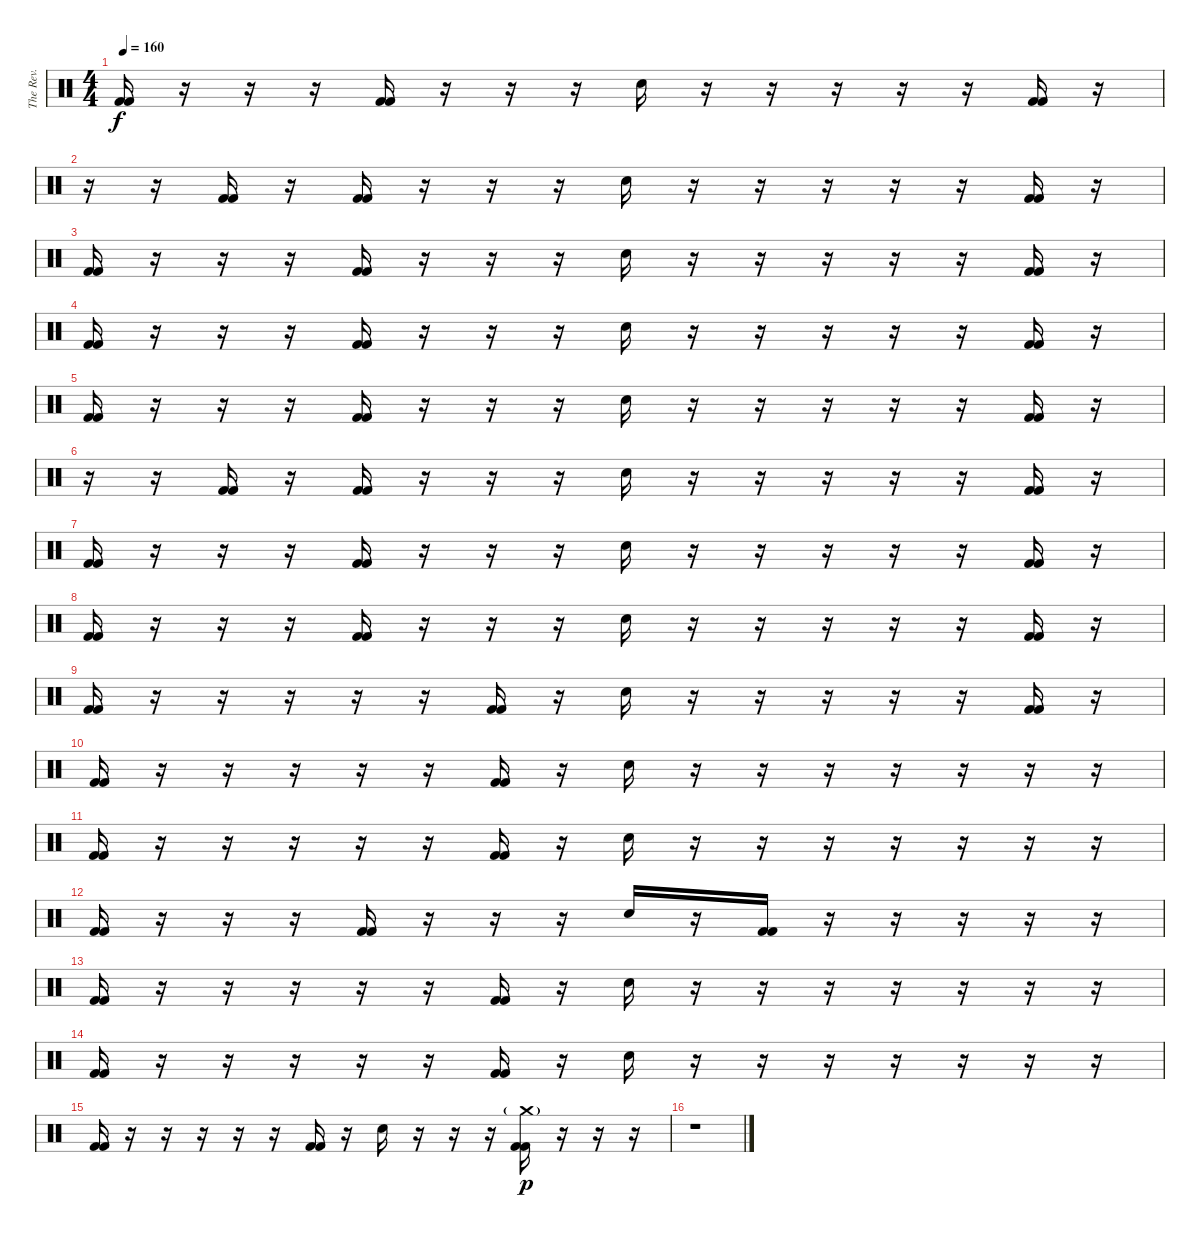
\track ("The Rev." "The Rev.") {instrument percussion}
\staff {score}
\articulation defaults
\ts (4 4)
\tempo 160
\clef neutral
\ks c
("Kick (hit) 2" "Kick (hit) 2").16{dy f} r.16 r.16 r.16 ("Kick (hit) 2" "Kick (hit) 2").16 r.16 r.16 r.16 "Electric Snare (hit)".16 r.16 r.16 r.16 r.16 r.16 ("Kick (hit) 2" "Kick (hit) 2").16 r.16 |
r.16 r.16 ("Kick (hit) 2" "Kick (hit) 2").16 r.16 ("Kick (hit) 2" "Kick (hit) 2").16 r.16 r.16 r.16 "Electric Snare (hit)".16 r.16 r.16 r.16 r.16 r.16 ("Kick (hit) 2" "Kick (hit) 2").16 r.16 |
("Kick (hit) 2" "Kick (hit) 2").16 r.16 r.16 r.16 ("Kick (hit) 2" "Kick (hit) 2").16 r.16 r.16 r.16 "Electric Snare (hit)".16 r.16 r.16 r.16 r.16 r.16 ("Kick (hit) 2" "Kick (hit) 2").16 r.16 |
("Kick (hit) 2" "Kick (hit) 2").16 r.16 r.16 r.16 ("Kick (hit) 2" "Kick (hit) 2").16 r.16 r.16 r.16 "Electric Snare (hit)".16 r.16 r.16 r.16 r.16 r.16 ("Kick (hit) 2" "Kick (hit) 2").16 r.16 |
("Kick (hit) 2" "Kick (hit) 2").16 r.16 r.16 r.16 ("Kick (hit) 2" "Kick (hit) 2").16 r.16 r.16 r.16 "Electric Snare (hit)".16 r.16 r.16 r.16 r.16 r.16 ("Kick (hit) 2" "Kick (hit) 2").16 r.16 |
r.16 r.16 ("Kick (hit) 2" "Kick (hit) 2").16 r.16 ("Kick (hit) 2" "Kick (hit) 2").16 r.16 r.16 r.16 "Electric Snare (hit)".16 r.16 r.16 r.16 r.16 r.16 ("Kick (hit) 2" "Kick (hit) 2").16 r.16 |
("Kick (hit) 2" "Kick (hit) 2").16 r.16 r.16 r.16 ("Kick (hit) 2" "Kick (hit) 2").16 r.16 r.16 r.16 "Electric Snare (hit)".16 r.16 r.16 r.16 r.16 r.16 ("Kick (hit) 2" "Kick (hit) 2").16 r.16 |
("Kick (hit) 2" "Kick (hit) 2").16 r.16 r.16 r.16 ("Kick (hit) 2" "Kick (hit) 2").16 r.16 r.16 r.16 "Electric Snare (hit)".16 r.16 r.16 r.16 r.16 r.16 ("Kick (hit) 2" "Kick (hit) 2").16 r.16 |
("Kick (hit) 2" "Kick (hit) 2").16 r.16 r.16 r.16 r.16 r.16 ("Kick (hit) 2" "Kick (hit) 2").16 r.16 "Electric Snare (hit)".16 r.16 r.16 r.16 r.16 r.16 ("Kick (hit) 2" "Kick (hit) 2").16 r.16 |
("Kick (hit) 2" "Kick (hit) 2").16 r.16 r.16 r.16 r.16 r.16 ("Kick (hit) 2" "Kick (hit) 2").16 r.16 "Electric Snare (hit)".16 r.16 r.16 r.16 r.16 r.16 r.16 r.16 |
("Kick (hit) 2" "Kick (hit) 2").16 r.16 r.16 r.16 r.16 r.16 ("Kick (hit) 2" "Kick (hit) 2").16 r.16 "Electric Snare (hit)".16 r.16 r.16 r.16 r.16 r.16 r.16 r.16 |
("Kick (hit) 2" "Kick (hit) 2").16 r.16 r.16 r.16 ("Kick (hit) 2" "Kick (hit) 2").16 r.16 r.16 r.16 "Electric Snare (hit)".16 r.16 ("Kick (hit) 2" "Kick (hit) 2").16 r.16 r.16 r.16 r.16 r.16 |
("Kick (hit) 2" "Kick (hit) 2").16 r.16 r.16 r.16 r.16 r.16 ("Kick (hit) 2" "Kick (hit) 2").16 r.16 "Electric Snare (hit)".16 r.16 r.16 r.16 r.16 r.16 r.16 r.16 |
("Kick (hit) 2" "Kick (hit) 2").16 r.16 r.16 r.16 r.16 r.16 ("Kick (hit) 2" "Kick (hit) 2").16 r.16 "Electric Snare (hit)".16 r.16 r.16 r.16 r.16 r.16 r.16 r.16 |
("Kick (hit) 2" "Kick (hit) 2").16 r.16 r.16 r.16 r.16 r.16 ("Kick (hit) 2" "Kick (hit) 2").16 r.16 "Electric Snare (hit)".16 r.16 r.16 r.16 ("Crash medium (hit)"{g} "Kick (hit) 2" "Kick (hit) 2").16{dy p} r.16 r.16 r.16 |
r.1
